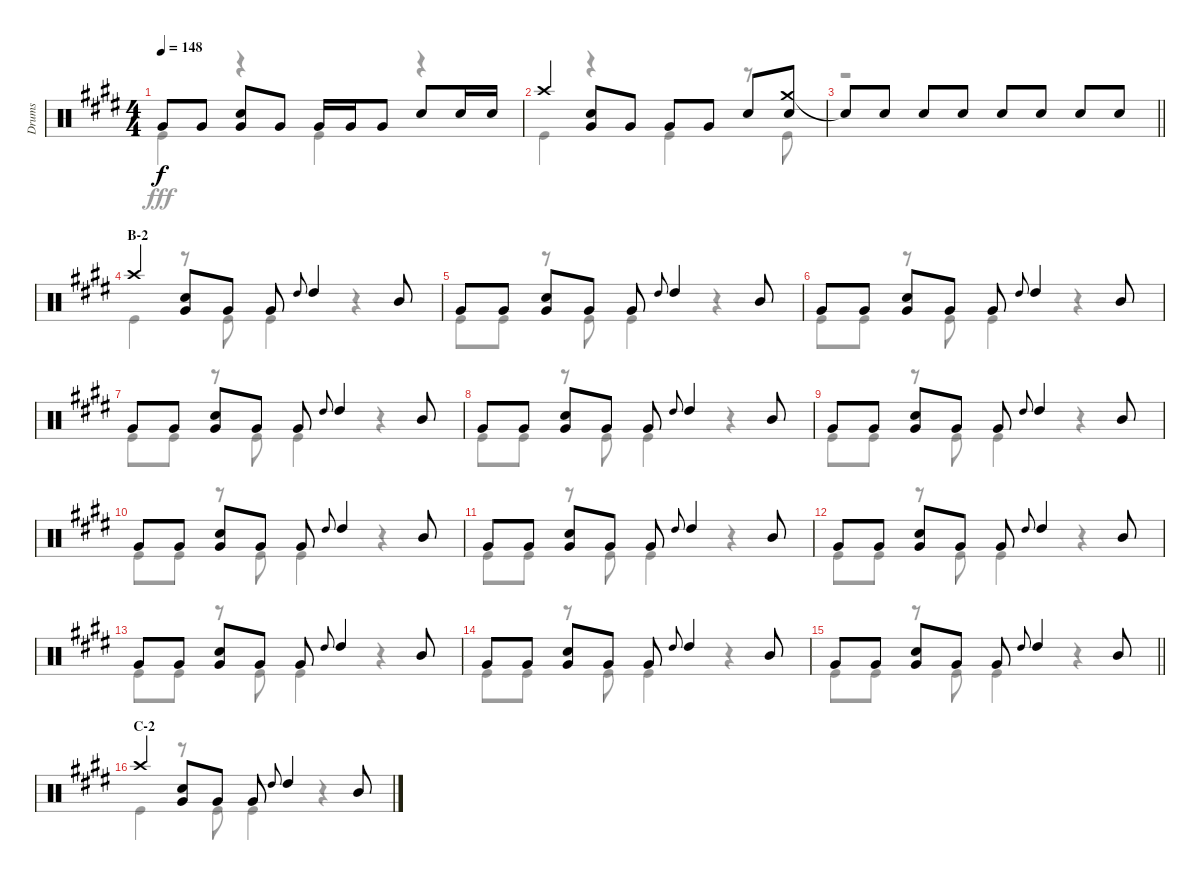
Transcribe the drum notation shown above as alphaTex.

\track ("Drums" "Drums") {instrument percussion}
\staff {score}
\articulation defaults
\voice
\ts (4 4)
\tempo 148
\clef neutral
\ks e "Very Low Tom (hit)".8{dy f} "Very Low Tom (hit)".8
("Snare (hit) 2" "Very Low Tom (hit)").8 "Very Low Tom (hit)".8 "Very Low Tom (hit)".16 "Very Low Tom (hit)".16 "Very Low Tom (hit)".8 "Snare (hit) 2".8 "Snare (hit) 2".16 "Snare (hit) 2".16 |
"Crash high (hit)".4 ("Snare (hit) 2" "Very Low Tom (hit)").8 "Very Low Tom (hit)".8 "Very Low Tom (hit)".8 "Very Low Tom (hit)".8 "Snare (hit) 2".8 ("Crash medium (hit)" "Snare (hit) 2").8 |
\barLineRight lightlight "Snare (hit)"{t}.8 "Snare (hit) 2".8 "Snare (hit) 2".8 "Snare (hit) 2".8 "Snare (hit) 2".8 "Snare (hit) 2".8 "Snare (hit) 2".8 "Snare (hit) 2".8
|
\section ("" "B-2")
"Crash high (hit)".4 ("Snare (hit) 2" "Very Low Tom (hit)").8 "Very Low Tom (hit)".8 "Very Low Tom (hit)".8 "High Tom (hit)".8{gr onbeat} "High Tom (hit)".4 "Mid Tom (hit)".8 |
"Very Low Tom (hit)".8 "Very Low Tom (hit)".8 ("Snare (hit) 2" "Very Low Tom (hit)").8 "Very Low Tom (hit)".8 "Very Low Tom (hit)".8 "High Tom (hit)".8{gr onbeat} "High Tom (hit)".4 "Mid Tom (hit)".8 |
"Very Low Tom (hit)".8 "Very Low Tom (hit)".8 ("Snare (hit) 2" "Very Low Tom (hit)").8 "Very Low Tom (hit)".8 "Very Low Tom (hit)".8 "High Tom (hit)".8{gr onbeat} "High Tom (hit)".4 "Mid Tom (hit)".8 |
"Very Low Tom (hit)".8 "Very Low Tom (hit)".8 ("Snare (hit) 2" "Very Low Tom (hit)").8 "Very Low Tom (hit)".8 "Very Low Tom (hit)".8 "High Tom (hit)".8{gr onbeat} "High Tom (hit)".4 "Mid Tom (hit)".8 |
"Very Low Tom (hit)".8 "Very Low Tom (hit)".8 ("Snare (hit) 2" "Very Low Tom (hit)").8 "Very Low Tom (hit)".8 "Very Low Tom (hit)".8 "High Tom (hit)".8{gr onbeat} "High Tom (hit)".4 "Mid Tom (hit)".8 |
"Very Low Tom (hit)".8 "Very Low Tom (hit)".8 ("Snare (hit) 2" "Very Low Tom (hit)").8 "Very Low Tom (hit)".8 "Very Low Tom (hit)".8 "High Tom (hit)".8{gr onbeat} "High Tom (hit)".4 "Mid Tom (hit)".8 |
"Very Low Tom (hit)".8 "Very Low Tom (hit)".8 ("Snare (hit) 2" "Very Low Tom (hit)").8 "Very Low Tom (hit)".8 "Very Low Tom (hit)".8 "High Tom (hit)".8{gr onbeat} "High Tom (hit)".4 "Mid Tom (hit)".8 |
"Very Low Tom (hit)".8 "Very Low Tom (hit)".8 ("Snare (hit) 2" "Very Low Tom (hit)").8 "Very Low Tom (hit)".8 "Very Low Tom (hit)".8 "High Tom (hit)".8{gr onbeat} "High Tom (hit)".4 "Mid Tom (hit)".8 |
"Very Low Tom (hit)".8 "Very Low Tom (hit)".8 ("Snare (hit) 2" "Very Low Tom (hit)").8 "Very Low Tom (hit)".8 "Very Low Tom (hit)".8 "High Tom (hit)".8{gr onbeat} "High Tom (hit)".4 "Mid Tom (hit)".8 |
"Very Low Tom (hit)".8 "Very Low Tom (hit)".8 ("Snare (hit) 2" "Very Low Tom (hit)").8 "Very Low Tom (hit)".8 "Very Low Tom (hit)".8 "High Tom (hit)".8{gr onbeat} "High Tom (hit)".4 "Mid Tom (hit)".8 |
"Very Low Tom (hit)".8 "Very Low Tom (hit)".8 ("Snare (hit) 2" "Very Low Tom (hit)").8 "Very Low Tom (hit)".8 "Very Low Tom (hit)".8 "High Tom (hit)".8{gr onbeat} "High Tom (hit)".4 "Mid Tom (hit)".8 |
\barLineRight lightlight "Very Low Tom (hit)".8 "Very Low Tom (hit)".8
("Snare (hit) 2" "Very Low Tom (hit)").8 "Very Low Tom (hit)".8 "Very Low Tom (hit)".8 "High Tom (hit)".8{gr onbeat} "High Tom (hit)".4 "Mid Tom (hit)".8 |
\section ("" "C-2")
"Crash high (hit)".4 ("Snare (hit) 2" "Very Low Tom (hit)").8 "Very Low Tom (hit)".8 "Very Low Tom (hit)".8 "High Tom (hit)".8{gr onbeat} "High Tom (hit)".4 "Mid Tom (hit)".8
\voice
\clef neutral
\ottava regular
\simile none
\ks e "Kick (hit)".4{dy fff}
r.4 "Kick (hit)".4 r.4 |
"Kick (hit)".4 r.4 "Kick (hit)".4 r.8 "Kick (hit)".8 |
\barLineRight lightlight
r.1 |
"Kick (hit)".4 r.8 "Kick (hit)".8 "Kick (hit)".4 r.4 |
"Kick (hit)".8 "Kick (hit)".8 r.8 "Kick (hit)".8 "Kick (hit)".4 r.4 |
"Kick (hit)".8 "Kick (hit)".8 r.8 "Kick (hit)".8 "Kick (hit)".4 r.4 |
"Kick (hit)".8 "Kick (hit)".8 r.8 "Kick (hit)".8 "Kick (hit)".4 r.4 |
"Kick (hit)".8 "Kick (hit)".8 r.8 "Kick (hit)".8 "Kick (hit)".4 r.4 |
"Kick (hit)".8 "Kick (hit)".8 r.8 "Kick (hit)".8 "Kick (hit)".4 r.4 |
"Kick (hit)".8 "Kick (hit)".8 r.8 "Kick (hit)".8 "Kick (hit)".4 r.4 |
"Kick (hit)".8 "Kick (hit)".8 r.8 "Kick (hit)".8 "Kick (hit)".4 r.4 |
"Kick (hit)".8 "Kick (hit)".8 r.8 "Kick (hit)".8 "Kick (hit)".4 r.4 |
"Kick (hit)".8 "Kick (hit)".8 r.8 "Kick (hit)".8 "Kick (hit)".4 r.4 |
"Kick (hit)".8 "Kick (hit)".8 r.8 "Kick (hit)".8 "Kick (hit)".4 r.4 |
\barLineRight lightlight "Kick (hit)".8 "Kick (hit)".8
r.8 "Kick (hit)".8 "Kick (hit)".4 r.4 |
"Kick (hit)".4 r.8 "Kick (hit)".8 "Kick (hit)".4 r.4
